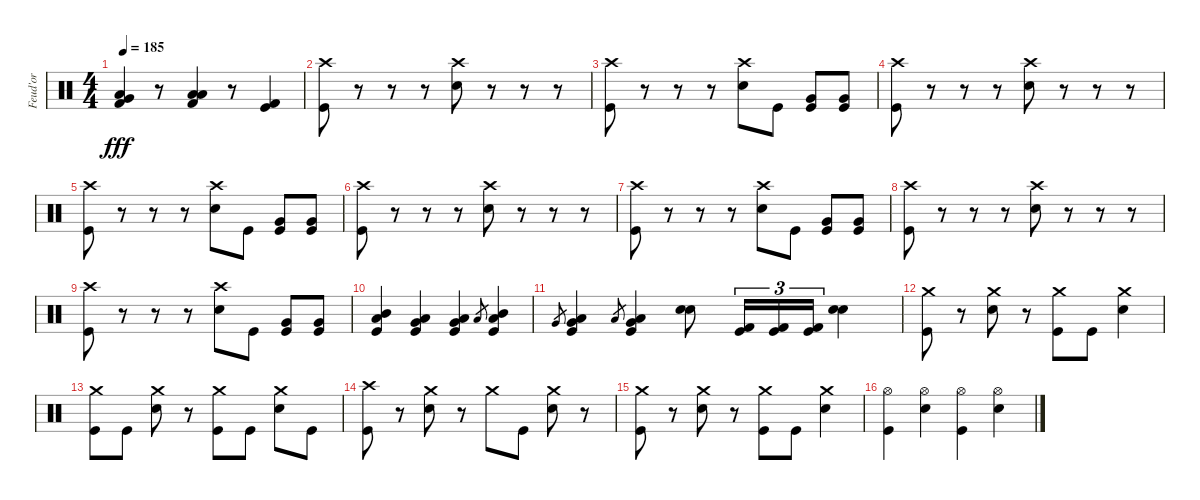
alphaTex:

\track ("Feud'or" "Feud'or") {instrument percussion}
\staff {score}
\articulation defaults
\ts (4 4)
\tempo 185
\clef neutral
\ks c
("Very Low Tom (hit)" "Low Tom (hit)" "Kick (hit) 2").4{dy fff} r.8 ("Low Floor Tom (hit)" "Low Floor Tom (hit)" "Kick (hit) 2").4 r.8 ("Kick (hit)" "Kick (hit) 2").4 |
("Crash high (hit)" "Kick (hit)").8 r.8 r.8 r.8 ("Crash high (hit)" "Snare (hit) 2").8 r.8 r.8 r.8 |
("Crash high (hit)" "Kick (hit)").8 r.8 r.8 r.8 ("Crash high (hit)" "Snare (hit) 2").8 "Kick (hit)".8 ("Very Low Tom (hit)" "Kick (hit)").8 ("Very Low Tom (hit)" "Kick (hit)").8 |
("Crash high (hit)" "Kick (hit)").8 r.8 r.8 r.8 ("Crash high (hit)" "Snare (hit) 2").8 r.8 r.8 r.8 |
("Crash high (hit)" "Kick (hit)").8 r.8 r.8 r.8 ("Crash high (hit)" "Snare (hit) 2").8 "Kick (hit)".8 ("Very Low Tom (hit)" "Kick (hit)").8 ("Very Low Tom (hit)" "Kick (hit)").8 |
("Crash high (hit)" "Kick (hit)").8 r.8 r.8 r.8 ("Crash high (hit)" "Snare (hit) 2").8 r.8 r.8 r.8 |
("Crash high (hit)" "Kick (hit)").8 r.8 r.8 r.8 ("Crash high (hit)" "Snare (hit) 2").8 "Kick (hit)".8 ("Very Low Tom (hit)" "Kick (hit)").8 ("Very Low Tom (hit)" "Kick (hit)").8 |
("Crash high (hit)" "Kick (hit)").8 r.8 r.8 r.8 ("Crash high (hit)" "Snare (hit) 2").8 r.8 r.8 r.8 |
("Crash high (hit)" "Kick (hit)").8 r.8 r.8 r.8 ("Crash high (hit)" "Snare (hit) 2").8 "Kick (hit)".8 ("Very Low Tom (hit)" "Kick (hit)").8 ("Very Low Tom (hit)" "Kick (hit)").8 |
("Mid Tom (hit)" "Low Tom (hit)" "Kick (hit)").4 ("Low Tom (hit)" "Very Low Tom (hit)" "Kick (hit)").4 ("Very Low Tom (hit)" "Low Floor Tom (hit)" "Kick (hit)").4 "Low Tom (hit)".8{gr} ("Mid Tom (hit)" "Low Tom (hit)" "Kick (hit)").4 |
"Very Low Tom (hit)".8{gr} ("Low Tom (hit)" "Very Low Tom (hit)" "Kick (hit)").4 "Low Floor Tom (hit)".8{gr} ("Very Low Tom (hit)" "Low Floor Tom (hit)" "Kick (hit)").4 ("Electric Snare (hit)" "Snare (hit) 2").8 ("Kick (hit) 2" "Kick (hit)").16{tu (3 2)} ("Kick (hit) 2" "Kick (hit)").16{tu (3 2)} ("Kick (hit) 2" "Kick (hit)").16{tu (3 2)} ("Electric Snare (hit)" "Snare (hit) 2").4 |
("Crash medium (hit)" "Kick (hit)").8 r.8 ("Crash medium (hit)" "Snare (hit) 2").8 r.8 ("Crash medium (hit)" "Kick (hit)").8 "Kick (hit)".8 ("Crash medium (hit)" "Snare (hit) 2").4 |
("Crash medium (hit)" "Kick (hit)").8 "Kick (hit)".8 ("Crash medium (hit)" "Snare (hit) 2").8 r.8 ("Crash medium (hit)" "Kick (hit)").8 "Kick (hit)".8 ("Crash medium (hit)" "Snare (hit) 2").8 "Kick (hit)".8 |
("Crash high (hit)" "Kick (hit)").8 r.8 ("Crash medium (hit)" "Snare (hit) 2").8 r.8 "Crash medium (hit)".8 "Kick (hit)".8 ("Crash medium (hit)" "Snare (hit) 2").8 r.8 |
("Crash medium (hit)" "Kick (hit)").8 r.8 ("Crash medium (hit)" "Snare (hit) 2").8 r.8 ("Crash medium (hit)" "Kick (hit)").8 "Kick (hit)".8 ("Crash medium (hit)" "Snare (hit) 2").4 |
("Hi-Hat (open)" "Kick (hit)").4 ("Hi-Hat (open)" "Snare (hit) 2").4 ("Hi-Hat (open)" "Kick (hit)").4 ("Hi-Hat (open)" "Snare (hit) 2").4
